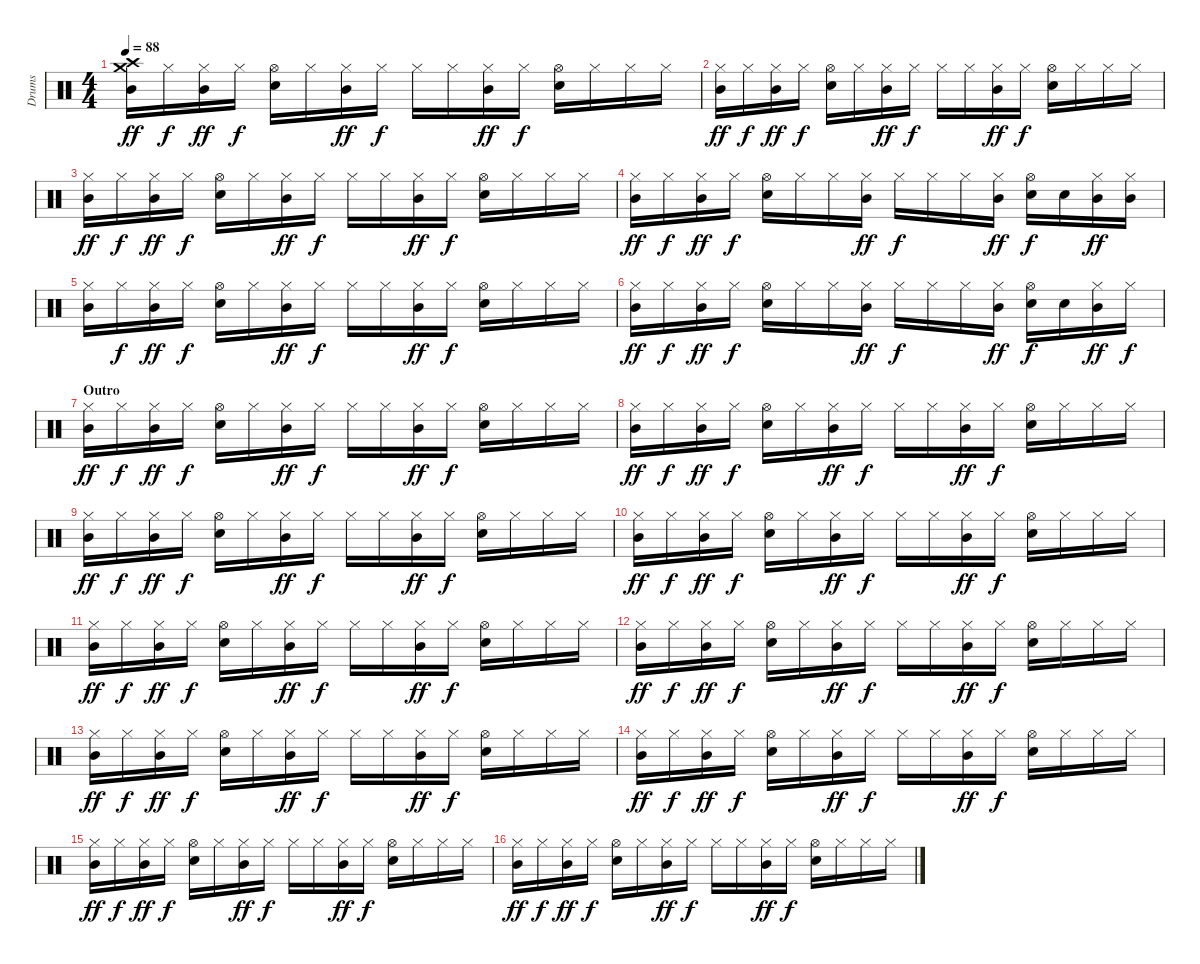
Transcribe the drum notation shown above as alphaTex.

\track ("Drums" "Drums") {instrument percussion}
\staff {score}
\articulation defaults
\ts (4 4)
\tempo 88
\clef neutral
\ks c
("Crash medium (hit)" "Crash high (hit)" "Mid Tom (hit)").16{dy ff} "Hi-Hat (closed)".16{dy f} ("Hi-Hat (closed)" "Mid Tom (hit)").16{dy ff} "Hi-Hat (closed)".16{dy f} ("Hi-Hat (open)" "Electric Snare (hit)").16 "Hi-Hat (closed)".16 ("Hi-Hat (closed)" "Mid Tom (hit)").16{dy ff} "Hi-Hat (closed)".16{dy f} "Hi-Hat (closed)".16 "Hi-Hat (closed)".16 ("Hi-Hat (closed)" "Mid Tom (hit)").16{dy ff} "Hi-Hat (closed)".16{dy f} ("Hi-Hat (open)" "Electric Snare (hit)").16 "Hi-Hat (closed)".16 "Hi-Hat (closed)".16 "Hi-Hat (closed)".16 |
("Hi-Hat (closed)" "Mid Tom (hit)").16{dy ff} "Hi-Hat (closed)".16{dy f} ("Hi-Hat (closed)" "Mid Tom (hit)").16{dy ff} "Hi-Hat (closed)".16{dy f} ("Hi-Hat (open)" "Electric Snare (hit)").16 "Hi-Hat (closed)".16 ("Hi-Hat (closed)" "Mid Tom (hit)").16{dy ff} "Hi-Hat (closed)".16{dy f} "Hi-Hat (closed)".16 "Hi-Hat (closed)".16 ("Hi-Hat (closed)" "Mid Tom (hit)").16{dy ff} "Hi-Hat (closed)".16{dy f} ("Hi-Hat (open)" "Electric Snare (hit)").16 "Hi-Hat (closed)".16 "Hi-Hat (closed)".16 "Hi-Hat (closed)".16 |
("Hi-Hat (closed)" "Mid Tom (hit)").16{dy ff} "Hi-Hat (closed)".16{dy f} ("Hi-Hat (closed)" "Mid Tom (hit)").16{dy ff} "Hi-Hat (closed)".16{dy f} ("Hi-Hat (open)" "Electric Snare (hit)").16 "Hi-Hat (closed)".16 ("Hi-Hat (closed)" "Mid Tom (hit)").16{dy ff} "Hi-Hat (closed)".16{dy f} "Hi-Hat (closed)".16 "Hi-Hat (closed)".16 ("Hi-Hat (closed)" "Mid Tom (hit)").16{dy ff} "Hi-Hat (closed)".16{dy f} ("Hi-Hat (open)" "Electric Snare (hit)").16 "Hi-Hat (closed)".16 "Hi-Hat (closed)".16 "Hi-Hat (closed)".16 |
("Hi-Hat (closed)" "Mid Tom (hit)").16{dy ff} "Hi-Hat (closed)".16{dy f} ("Hi-Hat (closed)" "Mid Tom (hit)").16{dy ff} "Hi-Hat (closed)".16{dy f} ("Hi-Hat (open)" "Electric Snare (hit)").16 "Hi-Hat (closed)".16 "Hi-Hat (closed)".16 ("Hi-Hat (closed)" "Mid Tom (hit)").16{dy ff} "Hi-Hat (closed)".16{dy f} "Hi-Hat (closed)".16 "Hi-Hat (closed)".16 ("Hi-Hat (closed)" "Mid Tom (hit)").16{dy ff} ("Hi-Hat (open)" "Electric Snare (hit)").16{dy f} "Electric Snare (hit)".16 ("Hi-Hat (closed)" "Mid Tom (hit)").16{dy ff} ("Hi-Hat (closed)" "Mid Tom (hit)").16 |
("Hi-Hat (closed)" "Mid Tom (hit)").16 "Hi-Hat (closed)".16{dy f} ("Hi-Hat (closed)" "Mid Tom (hit)").16{dy ff} "Hi-Hat (closed)".16{dy f} ("Hi-Hat (open)" "Electric Snare (hit)").16 "Hi-Hat (closed)".16 ("Hi-Hat (closed)" "Mid Tom (hit)").16{dy ff} "Hi-Hat (closed)".16{dy f} "Hi-Hat (closed)".16 "Hi-Hat (closed)".16 ("Hi-Hat (closed)" "Mid Tom (hit)").16{dy ff} "Hi-Hat (closed)".16{dy f} ("Hi-Hat (open)" "Electric Snare (hit)").16 "Hi-Hat (closed)".16 "Hi-Hat (closed)".16 "Hi-Hat (closed)".16 |
("Hi-Hat (closed)" "Mid Tom (hit)").16{dy ff} "Hi-Hat (closed)".16{dy f} ("Hi-Hat (closed)" "Mid Tom (hit)").16{dy ff} "Hi-Hat (closed)".16{dy f} ("Hi-Hat (open)" "Electric Snare (hit)").16 "Hi-Hat (closed)".16 "Hi-Hat (closed)".16 ("Hi-Hat (closed)" "Mid Tom (hit)").16{dy ff} "Hi-Hat (closed)".16{dy f} "Hi-Hat (closed)".16 "Hi-Hat (closed)".16 ("Hi-Hat (closed)" "Mid Tom (hit)").16{dy ff} ("Hi-Hat (open)" "Electric Snare (hit)").16{dy f} "Electric Snare (hit)".16 ("Hi-Hat (closed)" "Mid Tom (hit)").16{dy ff} "Hi-Hat (closed)".16{dy f} |
\section ("" "Outro")
("Hi-Hat (closed)" "Mid Tom (hit)").16{dy ff} "Hi-Hat (closed)".16{dy f} ("Hi-Hat (closed)" "Mid Tom (hit)").16{dy ff} "Hi-Hat (closed)".16{dy f} ("Hi-Hat (open)" "Electric Snare (hit)").16 "Hi-Hat (closed)".16 ("Hi-Hat (closed)" "Mid Tom (hit)").16{dy ff} "Hi-Hat (closed)".16{dy f} "Hi-Hat (closed)".16 "Hi-Hat (closed)".16 ("Hi-Hat (closed)" "Mid Tom (hit)").16{dy ff} "Hi-Hat (closed)".16{dy f} ("Hi-Hat (open)" "Electric Snare (hit)").16 "Hi-Hat (closed)".16 "Hi-Hat (closed)".16 "Hi-Hat (closed)".16 |
("Hi-Hat (closed)" "Mid Tom (hit)").16{dy ff} "Hi-Hat (closed)".16{dy f} ("Hi-Hat (closed)" "Mid Tom (hit)").16{dy ff} "Hi-Hat (closed)".16{dy f} ("Hi-Hat (open)" "Electric Snare (hit)").16 "Hi-Hat (closed)".16 ("Hi-Hat (closed)" "Mid Tom (hit)").16{dy ff} "Hi-Hat (closed)".16{dy f} "Hi-Hat (closed)".16 "Hi-Hat (closed)".16 ("Hi-Hat (closed)" "Mid Tom (hit)").16{dy ff} "Hi-Hat (closed)".16{dy f} ("Hi-Hat (open)" "Electric Snare (hit)").16 "Hi-Hat (closed)".16 "Hi-Hat (closed)".16 "Hi-Hat (closed)".16 |
("Hi-Hat (closed)" "Mid Tom (hit)").16{dy ff} "Hi-Hat (closed)".16{dy f} ("Hi-Hat (closed)" "Mid Tom (hit)").16{dy ff} "Hi-Hat (closed)".16{dy f} ("Hi-Hat (open)" "Electric Snare (hit)").16 "Hi-Hat (closed)".16 ("Hi-Hat (closed)" "Mid Tom (hit)").16{dy ff} "Hi-Hat (closed)".16{dy f} "Hi-Hat (closed)".16 "Hi-Hat (closed)".16 ("Hi-Hat (closed)" "Mid Tom (hit)").16{dy ff} "Hi-Hat (closed)".16{dy f} ("Hi-Hat (open)" "Electric Snare (hit)").16 "Hi-Hat (closed)".16 "Hi-Hat (closed)".16 "Hi-Hat (closed)".16 |
("Hi-Hat (closed)" "Mid Tom (hit)").16{dy ff} "Hi-Hat (closed)".16{dy f} ("Hi-Hat (closed)" "Mid Tom (hit)").16{dy ff} "Hi-Hat (closed)".16{dy f} ("Hi-Hat (open)" "Electric Snare (hit)").16 "Hi-Hat (closed)".16 ("Hi-Hat (closed)" "Mid Tom (hit)").16{dy ff} "Hi-Hat (closed)".16{dy f} "Hi-Hat (closed)".16 "Hi-Hat (closed)".16 ("Hi-Hat (closed)" "Mid Tom (hit)").16{dy ff} "Hi-Hat (closed)".16{dy f} ("Hi-Hat (open)" "Electric Snare (hit)").16 "Hi-Hat (closed)".16 "Hi-Hat (closed)".16 "Hi-Hat (closed)".16 |
("Hi-Hat (closed)" "Mid Tom (hit)").16{dy ff} "Hi-Hat (closed)".16{dy f} ("Hi-Hat (closed)" "Mid Tom (hit)").16{dy ff} "Hi-Hat (closed)".16{dy f} ("Hi-Hat (open)" "Electric Snare (hit)").16 "Hi-Hat (closed)".16 ("Hi-Hat (closed)" "Mid Tom (hit)").16{dy ff} "Hi-Hat (closed)".16{dy f} "Hi-Hat (closed)".16 "Hi-Hat (closed)".16 ("Hi-Hat (closed)" "Mid Tom (hit)").16{dy ff} "Hi-Hat (closed)".16{dy f} ("Hi-Hat (open)" "Electric Snare (hit)").16 "Hi-Hat (closed)".16 "Hi-Hat (closed)".16 "Hi-Hat (closed)".16 |
("Hi-Hat (closed)" "Mid Tom (hit)").16{dy ff} "Hi-Hat (closed)".16{dy f} ("Hi-Hat (closed)" "Mid Tom (hit)").16{dy ff} "Hi-Hat (closed)".16{dy f} ("Hi-Hat (open)" "Electric Snare (hit)").16 "Hi-Hat (closed)".16 ("Hi-Hat (closed)" "Mid Tom (hit)").16{dy ff} "Hi-Hat (closed)".16{dy f} "Hi-Hat (closed)".16 "Hi-Hat (closed)".16 ("Hi-Hat (closed)" "Mid Tom (hit)").16{dy ff} "Hi-Hat (closed)".16{dy f} ("Hi-Hat (open)" "Electric Snare (hit)").16 "Hi-Hat (closed)".16 "Hi-Hat (closed)".16 "Hi-Hat (closed)".16 |
("Hi-Hat (closed)" "Mid Tom (hit)").16{dy ff volume 10} "Hi-Hat (closed)".16{dy f} ("Hi-Hat (closed)" "Mid Tom (hit)").16{dy ff} "Hi-Hat (closed)".16{dy f} ("Hi-Hat (open)" "Electric Snare (hit)").16 "Hi-Hat (closed)".16 ("Hi-Hat (closed)" "Mid Tom (hit)").16{dy ff} "Hi-Hat (closed)".16{dy f} "Hi-Hat (closed)".16 "Hi-Hat (closed)".16 ("Hi-Hat (closed)" "Mid Tom (hit)").16{dy ff} "Hi-Hat (closed)".16{dy f} ("Hi-Hat (open)" "Electric Snare (hit)").16 "Hi-Hat (closed)".16 "Hi-Hat (closed)".16 "Hi-Hat (closed)".16 |
("Hi-Hat (closed)" "Mid Tom (hit)").16{dy ff} "Hi-Hat (closed)".16{dy f} ("Hi-Hat (closed)" "Mid Tom (hit)").16{dy ff} "Hi-Hat (closed)".16{dy f} ("Hi-Hat (open)" "Electric Snare (hit)").16 "Hi-Hat (closed)".16 ("Hi-Hat (closed)" "Mid Tom (hit)").16{dy ff} "Hi-Hat (closed)".16{dy f} "Hi-Hat (closed)".16 "Hi-Hat (closed)".16 ("Hi-Hat (closed)" "Mid Tom (hit)").16{dy ff} "Hi-Hat (closed)".16{dy f} ("Hi-Hat (open)" "Electric Snare (hit)").16 "Hi-Hat (closed)".16 "Hi-Hat (closed)".16 "Hi-Hat (closed)".16 |
("Hi-Hat (closed)" "Mid Tom (hit)").16{dy ff volume 6} "Hi-Hat (closed)".16{dy f} ("Hi-Hat (closed)" "Mid Tom (hit)").16{dy ff} "Hi-Hat (closed)".16{dy f} ("Hi-Hat (open)" "Electric Snare (hit)").16 "Hi-Hat (closed)".16 ("Hi-Hat (closed)" "Mid Tom (hit)").16{dy ff} "Hi-Hat (closed)".16{dy f} "Hi-Hat (closed)".16 "Hi-Hat (closed)".16 ("Hi-Hat (closed)" "Mid Tom (hit)").16{dy ff} "Hi-Hat (closed)".16{dy f} ("Hi-Hat (open)" "Electric Snare (hit)").16 "Hi-Hat (closed)".16 "Hi-Hat (closed)".16 "Hi-Hat (closed)".16 |
("Hi-Hat (closed)" "Mid Tom (hit)").16{dy ff} "Hi-Hat (closed)".16{dy f} ("Hi-Hat (closed)" "Mid Tom (hit)").16{dy ff} "Hi-Hat (closed)".16{dy f} ("Hi-Hat (open)" "Electric Snare (hit)").16 "Hi-Hat (closed)".16 ("Hi-Hat (closed)" "Mid Tom (hit)").16{dy ff} "Hi-Hat (closed)".16{dy f} "Hi-Hat (closed)".16 "Hi-Hat (closed)".16 ("Hi-Hat (closed)" "Mid Tom (hit)").16{dy ff} "Hi-Hat (closed)".16{dy f} ("Hi-Hat (open)" "Electric Snare (hit)").16 "Hi-Hat (closed)".16 "Hi-Hat (closed)".16 "Hi-Hat (closed)".16
